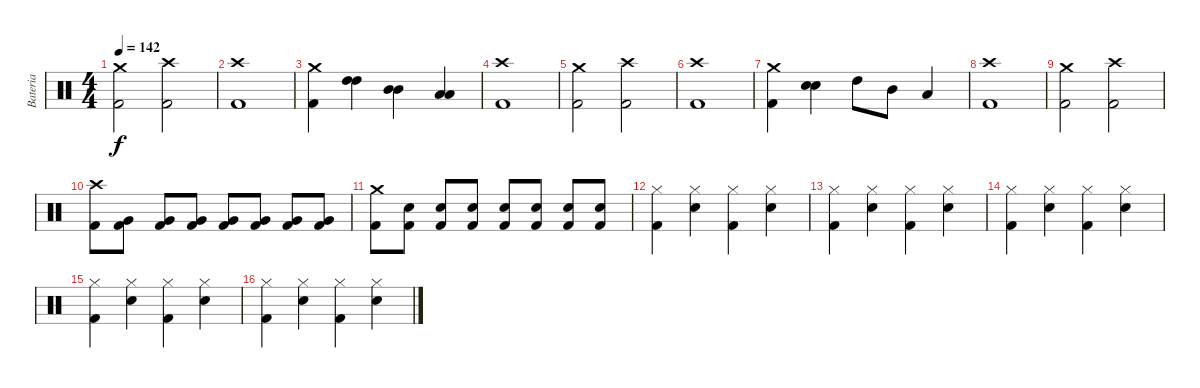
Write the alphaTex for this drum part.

\track ("Bateria" "Bateria") {instrument percussion}
\staff {score}
\articulation defaults
\ts (4 4)
\tempo 142
\clef neutral
\ks c
("Crash medium (hit)" "Kick (hit) 2").2{dy f} ("Crash high (hit)" "Kick (hit) 2").2 |
("Crash high (hit)" "Kick (hit) 2").1 |
("Crash medium (hit)" "Kick (hit) 2").4 ("High Tom (hit)" "High Tom (hit)").4 ("Mid Tom (hit)" "Mid Tom (hit)").4 ("Low Tom (hit)" "Low Tom (hit)").4 |
("Crash high (hit)" "Kick (hit) 2").1 |
("Crash medium (hit)" "Kick (hit) 2").2 ("Crash high (hit)" "Kick (hit) 2").2 |
("Crash high (hit)" "Kick (hit) 2").1 |
("Crash medium (hit)" "Kick (hit) 2").4 ("Electric Snare (hit)" "Electric Snare (hit)").4 "High Tom (hit)".8 "Mid Tom (hit)".8 "Low Tom (hit)".4 |
("Crash high (hit)" "Kick (hit) 2").1 |
("Crash medium (hit)" "Kick (hit) 2").2 ("Crash high (hit)" "Kick (hit) 2").2 |
("Crash high (hit)" "Kick (hit) 2").8 ("Very Low Tom (hit)" "Kick (hit) 2").8 ("Very Low Tom (hit)" "Kick (hit) 2").8 ("Very Low Tom (hit)" "Kick (hit) 2").8 ("Very Low Tom (hit)" "Kick (hit) 2").8 ("Very Low Tom (hit)" "Kick (hit) 2").8 ("Very Low Tom (hit)" "Kick (hit) 2").8 ("Very Low Tom (hit)" "Kick (hit) 2").8 |
("Crash medium (hit)" "Kick (hit) 2").8 ("Electric Snare (hit)" "Kick (hit) 2").8 ("Electric Snare (hit)" "Kick (hit) 2").8 ("Electric Snare (hit)" "Kick (hit) 2").8 ("Electric Snare (hit)" "Kick (hit) 2").8 ("Electric Snare (hit)" "Kick (hit) 2").8 ("Electric Snare (hit)" "Kick (hit) 2").8 ("Electric Snare (hit)" "Kick (hit) 2").8 |
("Hi-Hat (closed)" "Kick (hit) 2").4 ("Hi-Hat (closed)" "Electric Snare (hit)").4 ("Hi-Hat (closed)" "Kick (hit) 2").4 ("Hi-Hat (closed)" "Electric Snare (hit)").4 |
("Hi-Hat (closed)" "Kick (hit) 2").4 ("Hi-Hat (closed)" "Electric Snare (hit)").4 ("Hi-Hat (closed)" "Kick (hit) 2").4 ("Hi-Hat (closed)" "Electric Snare (hit)").4 |
("Hi-Hat (closed)" "Kick (hit) 2").4 ("Hi-Hat (closed)" "Electric Snare (hit)").4 ("Hi-Hat (closed)" "Kick (hit) 2").4 ("Hi-Hat (closed)" "Electric Snare (hit)").4 |
("Hi-Hat (closed)" "Kick (hit) 2").4 ("Hi-Hat (closed)" "Electric Snare (hit)").4 ("Hi-Hat (closed)" "Kick (hit) 2").4 ("Hi-Hat (closed)" "Electric Snare (hit)").4 |
("Hi-Hat (closed)" "Kick (hit) 2").4 ("Hi-Hat (closed)" "Electric Snare (hit)").4 ("Hi-Hat (closed)" "Kick (hit) 2").4 ("Hi-Hat (closed)" "Electric Snare (hit)").4
